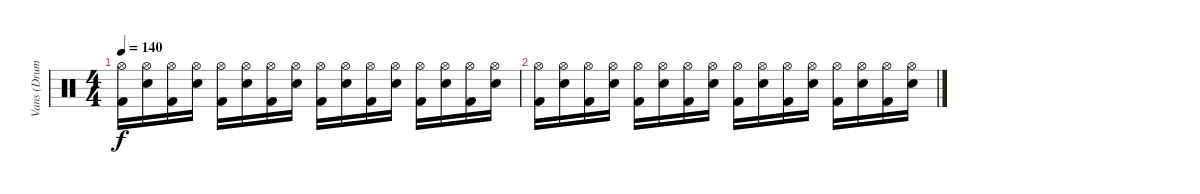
\track ("Vans (Drums)" "Vans (Drum") {instrument percussion}
\staff {score}
\articulation defaults
\ts (4 4)
\tempo 140
\clef neutral
\ks c
("Hi-Hat (open)" "Kick (hit) 2").16{dy f} ("Hi-Hat (open)" "Snare (hit) 2").16 ("Hi-Hat (open)" "Kick (hit) 2").16 ("Hi-Hat (open)" "Snare (hit) 2").16 ("Hi-Hat (open)" "Kick (hit) 2").16 ("Hi-Hat (open)" "Snare (hit) 2").16 ("Hi-Hat (open)" "Kick (hit) 2").16 ("Hi-Hat (open)" "Snare (hit) 2").16 ("Hi-Hat (open)" "Kick (hit) 2").16 ("Hi-Hat (open)" "Snare (hit) 2").16 ("Hi-Hat (open)" "Kick (hit) 2").16 ("Hi-Hat (open)" "Snare (hit) 2").16 ("Hi-Hat (open)" "Kick (hit) 2").16 ("Hi-Hat (open)" "Snare (hit) 2").16 ("Hi-Hat (open)" "Kick (hit) 2").16 ("Hi-Hat (open)" "Snare (hit) 2").16 |
("Hi-Hat (open)" "Kick (hit) 2").16 ("Hi-Hat (open)" "Snare (hit) 2").16 ("Hi-Hat (open)" "Kick (hit) 2").16 ("Hi-Hat (open)" "Snare (hit) 2").16 ("Hi-Hat (open)" "Kick (hit) 2").16 ("Hi-Hat (open)" "Snare (hit) 2").16 ("Hi-Hat (open)" "Kick (hit) 2").16 ("Hi-Hat (open)" "Snare (hit) 2").16 ("Hi-Hat (open)" "Kick (hit) 2").16 ("Hi-Hat (open)" "Snare (hit) 2").16 ("Hi-Hat (open)" "Kick (hit) 2").16 ("Hi-Hat (open)" "Snare (hit) 2").16 ("Hi-Hat (open)" "Kick (hit) 2").16 ("Hi-Hat (open)" "Snare (hit) 2").16 ("Hi-Hat (open)" "Kick (hit) 2").16 ("Hi-Hat (open)" "Snare (hit) 2").16
